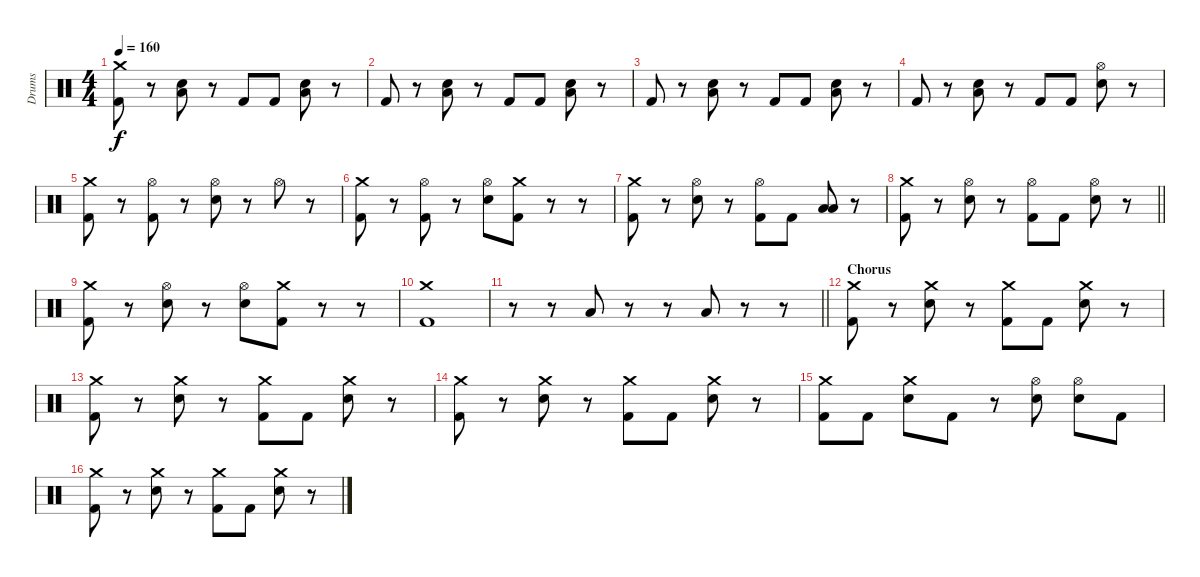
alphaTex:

\track ("Drums" "Drums") {instrument percussion}
\staff {score}
\articulation defaults
\ts (4 4)
\tempo 160
\clef neutral
\ks c
("Crash medium (hit)" "Kick (hit) 2").8{dy f} r.8 ("Low Floor Tom (hit)" "Electric Snare (hit)").8 r.8 "Kick (hit) 2".8 "Kick (hit) 2".8 ("Low Floor Tom (hit)" "Electric Snare (hit)").8 r.8 |
"Kick (hit) 2".8 r.8 ("Low Floor Tom (hit)" "Electric Snare (hit)").8 r.8 "Kick (hit) 2".8 "Kick (hit) 2".8 ("Low Floor Tom (hit)" "Electric Snare (hit)").8 r.8 |
"Kick (hit) 2".8 r.8 ("Low Floor Tom (hit)" "Electric Snare (hit)").8 r.8 "Kick (hit) 2".8 "Kick (hit) 2".8 ("Low Floor Tom (hit)" "Electric Snare (hit)").8 r.8 |
"Kick (hit) 2".8 r.8 ("Low Floor Tom (hit)" "Electric Snare (hit)").8 r.8 "Kick (hit) 2".8 "Kick (hit) 2".8 ("Hi-Hat (open)" "Electric Snare (hit)").8 r.8 |
("Crash medium (hit)" "Kick (hit) 2").8 r.8 ("Hi-Hat (open)" "Kick (hit) 2").8 r.8 ("Hi-Hat (open)" "Electric Snare (hit)").8 r.8 "Hi-Hat (open)".8 r.8 |
("Crash medium (hit)" "Kick (hit) 2").8 r.8 ("Hi-Hat (open)" "Kick (hit) 2").8 r.8 ("Hi-Hat (open)" "Electric Snare (hit)").8 ("Crash medium (hit)" "Kick (hit) 2").8 r.8 r.8 |
("Crash medium (hit)" "Kick (hit) 2").8 r.8 ("Hi-Hat (open)" "Electric Snare (hit)").8 r.8 ("Hi-Hat (open)" "Kick (hit) 2").8 "Kick (hit) 2".8 ("Low Tom (hit)" "Low Tom (hit)").8 r.8 |
\barLineRight lightlight
("Crash medium (hit)" "Kick (hit) 2").8 r.8 ("Hi-Hat (open)" "Electric Snare (hit)").8 r.8 ("Hi-Hat (open)" "Kick (hit) 2").8 "Kick (hit) 2".8 ("Hi-Hat (open)" "Electric Snare (hit)").8 r.8 |
("Crash medium (hit)" "Kick (hit) 2").8 r.8 ("Hi-Hat (open)" "Electric Snare (hit)").8 r.8 ("Hi-Hat (open)" "Electric Snare (hit)").8 ("Crash medium (hit)" "Kick (hit) 2").8 r.8 r.8 |
("Crash medium (hit)" "Kick (hit) 2").1 |
\barLineRight lightlight
r.8 r.8 "Low Tom (hit)".8 r.8 r.8 "Low Tom (hit)".8 r.8 r.8 |
\section ("" "Chorus")
("Crash medium (hit)" "Kick (hit) 2").8 r.8 ("Crash medium (hit)" "Electric Snare (hit)").8 r.8 ("Crash medium (hit)" "Kick (hit) 2").8 "Kick (hit) 2".8 ("Crash medium (hit)" "Electric Snare (hit)").8 r.8 |
("Crash medium (hit)" "Kick (hit) 2").8 r.8 ("Crash medium (hit)" "Electric Snare (hit)").8 r.8 ("Crash medium (hit)" "Kick (hit) 2").8 "Kick (hit) 2".8 ("Crash medium (hit)" "Electric Snare (hit)").8 r.8 |
("Crash medium (hit)" "Kick (hit) 2").8 r.8 ("Crash medium (hit)" "Electric Snare (hit)").8 r.8 ("Crash medium (hit)" "Kick (hit) 2").8 "Kick (hit) 2".8 ("Crash medium (hit)" "Electric Snare (hit)").8 r.8 |
("Crash medium (hit)" "Kick (hit) 2").8 "Kick (hit) 2".8 ("Crash medium (hit)" "Electric Snare (hit)").8 "Kick (hit) 2".8 r.8 ("Hi-Hat (open)" "Electric Snare (hit)").8 ("Hi-Hat (open)" "Electric Snare (hit)").8 "Kick (hit) 2".8 |
("Crash medium (hit)" "Kick (hit) 2").8 r.8 ("Crash medium (hit)" "Electric Snare (hit)").8 r.8 ("Crash medium (hit)" "Kick (hit) 2").8 "Kick (hit) 2".8 ("Crash medium (hit)" "Electric Snare (hit)").8 r.8
